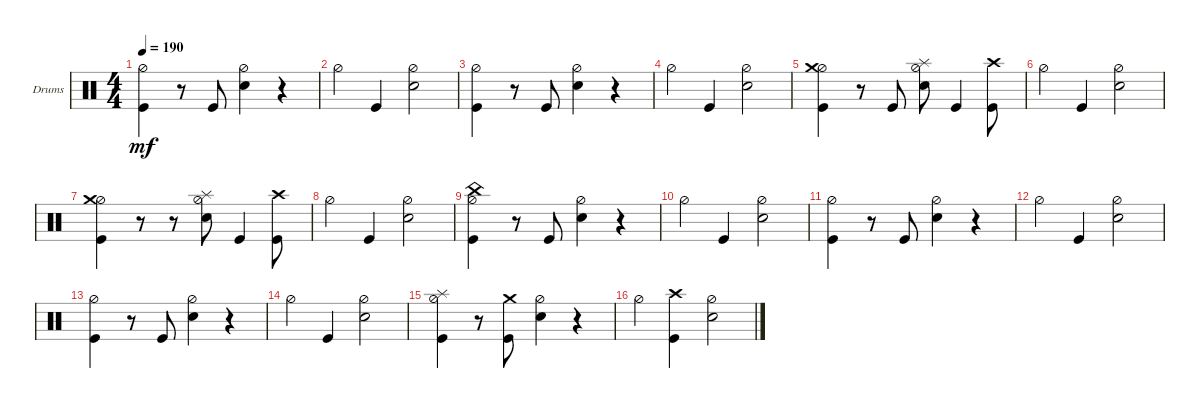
\defaultSystemsLayout 4
\bracketExtendMode groupsimilarinstruments
\firstSystemTrackNameOrientation horizontal
\otherSystemsTrackNameOrientation horizontal
\track ("Drumkit" "Drums") {instrument percussion}
\staff {score}
\articulation defaults
\ts (4 4)
\tempo 190
\clef neutral
\ks c
("Hi-Hat (half)" "Kick (hit)").4{dy mf} r.8 "Kick (hit)".8 ("Hi-Hat (half)" "Snare (hit) 2").4 r.4 |
"Hi-Hat (half)".4 "Kick (hit)".4 ("Snare (hit) 2" "Hi-Hat (half)").2 |
("Hi-Hat (half)" "Kick (hit)").4 r.8 "Kick (hit)".8 ("Hi-Hat (half)" "Snare (hit) 2").4 r.4 |
"Hi-Hat (half)".4 "Kick (hit)".4 ("Snare (hit) 2" "Hi-Hat (half)").2 |
("Hi-Hat (half)" "Kick (hit)" "Crash medium (hit)").4 r.8 "Kick (hit)".8 ("Hi-Hat (half)" "Snare (hit) 2" "Splash (hit)").8 "Kick (hit)".4 ("Kick (hit)" "Crash high (hit)").8 |
"Hi-Hat (half)".4 "Kick (hit)".4 ("Snare (hit) 2" "Hi-Hat (half)").2 |
("Hi-Hat (half)" "Kick (hit)" "Crash medium (hit)").4 r.8 r.8 ("Hi-Hat (half)" "Snare (hit) 2" "Splash (hit)").8 "Kick (hit)".4 ("Kick (hit)" "Crash high (hit)").8 |
"Hi-Hat (half)".4 "Kick (hit)".4 ("Snare (hit) 2" "Hi-Hat (half)").2 |
("Hi-Hat (half)" "Kick (hit)" "China (hit)").4 r.8 "Kick (hit)".8 ("Hi-Hat (half)" "Snare (hit) 2").4 r.4 |
"Hi-Hat (half)".4 "Kick (hit)".4 ("Snare (hit) 2" "Hi-Hat (half)").2 |
("Hi-Hat (half)" "Kick (hit)").4 r.8 "Kick (hit)".8 ("Hi-Hat (half)" "Snare (hit) 2").4 r.4 |
"Hi-Hat (half)".4 "Kick (hit)".4 ("Snare (hit) 2" "Hi-Hat (half)").2 |
("Hi-Hat (half)" "Kick (hit)").4 r.8 "Kick (hit)".8 ("Hi-Hat (half)" "Snare (hit) 2").4 r.4 |
"Hi-Hat (half)".4 "Kick (hit)".4 ("Snare (hit) 2" "Hi-Hat (half)").2 |
("Hi-Hat (half)" "Kick (hit)" "Splash (hit)").4 r.8 ("Kick (hit)" "Crash medium (hit)").8 ("Hi-Hat (half)" "Snare (hit) 2").4 r.4 |
"Hi-Hat (half)".4 ("Kick (hit)" "Crash high (hit)").4 ("Snare (hit) 2" "Hi-Hat (half)").2
